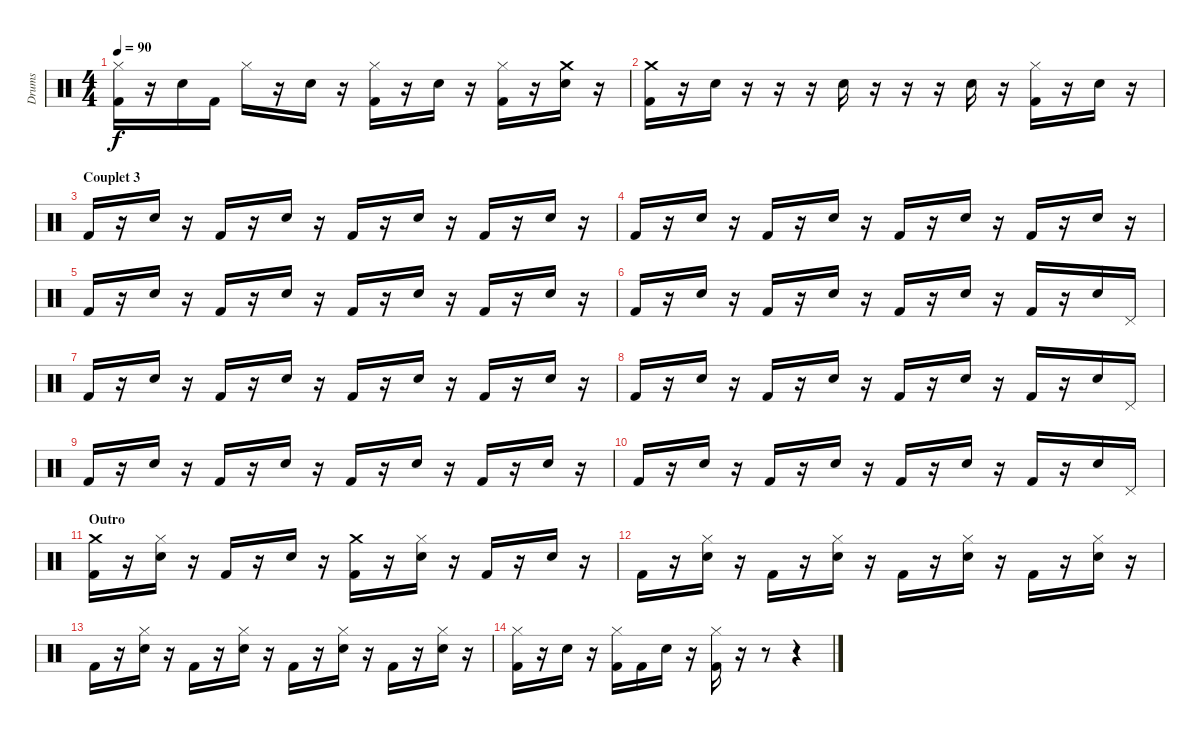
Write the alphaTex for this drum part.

\track ("Drums" "Drums") {instrument percussion}
\staff {score}
\articulation defaults
\ts (4 4)
\tempo 90
\clef neutral
\ks c
("Hi-Hat (closed)" "Kick (hit) 2").16{dy f} r.16 "Electric Snare (hit)".16 "Kick (hit) 2".16 "Hi-Hat (closed)".16 r.16 "Electric Snare (hit)".16 r.16 ("Hi-Hat (closed)" "Kick (hit) 2").16 r.16 "Electric Snare (hit)".16 r.16 ("Hi-Hat (closed)" "Kick (hit) 2").16 r.16 ("Crash medium (hit)" "Electric Snare (hit)").16 r.16 |
("Crash medium (hit)" "Kick (hit) 2").16 r.16 "Electric Snare (hit)".16 r.16 r.16 r.16 "Electric Snare (hit)".16 r.16 r.16 r.16 "Electric Snare (hit)".16 r.16 ("Hi-Hat (closed)" "Kick (hit) 2").16 r.16 "Electric Snare (hit)".16 r.16 |
\section ("" "Couplet 3")
"Kick (hit) 2".16 r.16 "Electric Snare (hit)".16 r.16 "Kick (hit) 2".16 r.16 "Electric Snare (hit)".16 r.16 "Kick (hit) 2".16 r.16 "Electric Snare (hit)".16 r.16 "Kick (hit) 2".16 r.16 "Electric Snare (hit)".16 r.16 |
"Kick (hit) 2".16 r.16 "Electric Snare (hit)".16 r.16 "Kick (hit) 2".16 r.16 "Electric Snare (hit)".16 r.16 "Kick (hit) 2".16 r.16 "Electric Snare (hit)".16 r.16 "Kick (hit) 2".16 r.16 "Electric Snare (hit)".16 r.16 |
"Kick (hit) 2".16 r.16 "Electric Snare (hit)".16 r.16 "Kick (hit) 2".16 r.16 "Electric Snare (hit)".16 r.16 "Kick (hit) 2".16 r.16 "Electric Snare (hit)".16 r.16 "Kick (hit) 2".16 r.16 "Electric Snare (hit)".16 r.16 |
"Kick (hit) 2".16 r.16 "Electric Snare (hit)".16 r.16 "Kick (hit) 2".16 r.16 "Electric Snare (hit)".16 r.16 "Kick (hit) 2".16 r.16 "Electric Snare (hit)".16 r.16 "Kick (hit) 2".16 r.16 "Electric Snare (hit)".16 "Pedal Hi-Hat (hit)".16 |
"Kick (hit) 2".16 r.16 "Electric Snare (hit)".16 r.16 "Kick (hit) 2".16 r.16 "Electric Snare (hit)".16 r.16 "Kick (hit) 2".16 r.16 "Electric Snare (hit)".16 r.16 "Kick (hit) 2".16 r.16 "Electric Snare (hit)".16 r.16 |
"Kick (hit) 2".16 r.16 "Electric Snare (hit)".16 r.16 "Kick (hit) 2".16 r.16 "Electric Snare (hit)".16 r.16 "Kick (hit) 2".16 r.16 "Electric Snare (hit)".16 r.16 "Kick (hit) 2".16 r.16 "Electric Snare (hit)".16 "Pedal Hi-Hat (hit)".16 |
"Kick (hit) 2".16 r.16 "Electric Snare (hit)".16 r.16 "Kick (hit) 2".16 r.16 "Electric Snare (hit)".16 r.16 "Kick (hit) 2".16 r.16 "Electric Snare (hit)".16 r.16 "Kick (hit) 2".16 r.16 "Electric Snare (hit)".16 r.16 |
"Kick (hit) 2".16 r.16 "Electric Snare (hit)".16 r.16 "Kick (hit) 2".16 r.16 "Electric Snare (hit)".16 r.16 "Kick (hit) 2".16 r.16 "Electric Snare (hit)".16 r.16 "Kick (hit) 2".16 r.16 "Electric Snare (hit)".16 "Pedal Hi-Hat (hit)".16 |
\section ("" "Outro")
("Crash medium (hit)" "Kick (hit) 2").16 r.16 ("Hi-Hat (closed)" "Electric Snare (hit)").16 r.16 "Kick (hit) 2".16 r.16 "Electric Snare (hit)".16 r.16 ("Crash medium (hit)" "Kick (hit) 2").16 r.16 ("Hi-Hat (closed)" "Electric Snare (hit)").16 r.16 "Kick (hit) 2".16 r.16 "Electric Snare (hit)".16 r.16 |
"Kick (hit) 2".16 r.16 ("Hi-Hat (closed)" "Electric Snare (hit)").16 r.16 "Kick (hit) 2".16 r.16 ("Hi-Hat (closed)" "Electric Snare (hit)").16 r.16 "Kick (hit) 2".16 r.16 ("Hi-Hat (closed)" "Electric Snare (hit)").16 r.16 "Kick (hit) 2".16 r.16 ("Hi-Hat (closed)" "Electric Snare (hit)").16 r.16 |
"Kick (hit) 2".16 r.16 ("Hi-Hat (closed)" "Electric Snare (hit)").16 r.16 "Kick (hit) 2".16 r.16 ("Hi-Hat (closed)" "Electric Snare (hit)").16 r.16 "Kick (hit) 2".16 r.16 ("Hi-Hat (closed)" "Electric Snare (hit)").16 r.16 "Kick (hit) 2".16 r.16 ("Hi-Hat (closed)" "Electric Snare (hit)").16 r.16 |
("Hi-Hat (closed)" "Kick (hit) 2").16 r.16 "Electric Snare (hit)".16 r.16 ("Hi-Hat (closed)" "Kick (hit) 2").16 "Kick (hit) 2".16 "Electric Snare (hit)".16 r.16 ("Hi-Hat (closed)" "Kick (hit) 2").16 r.16 r.8 r.4
